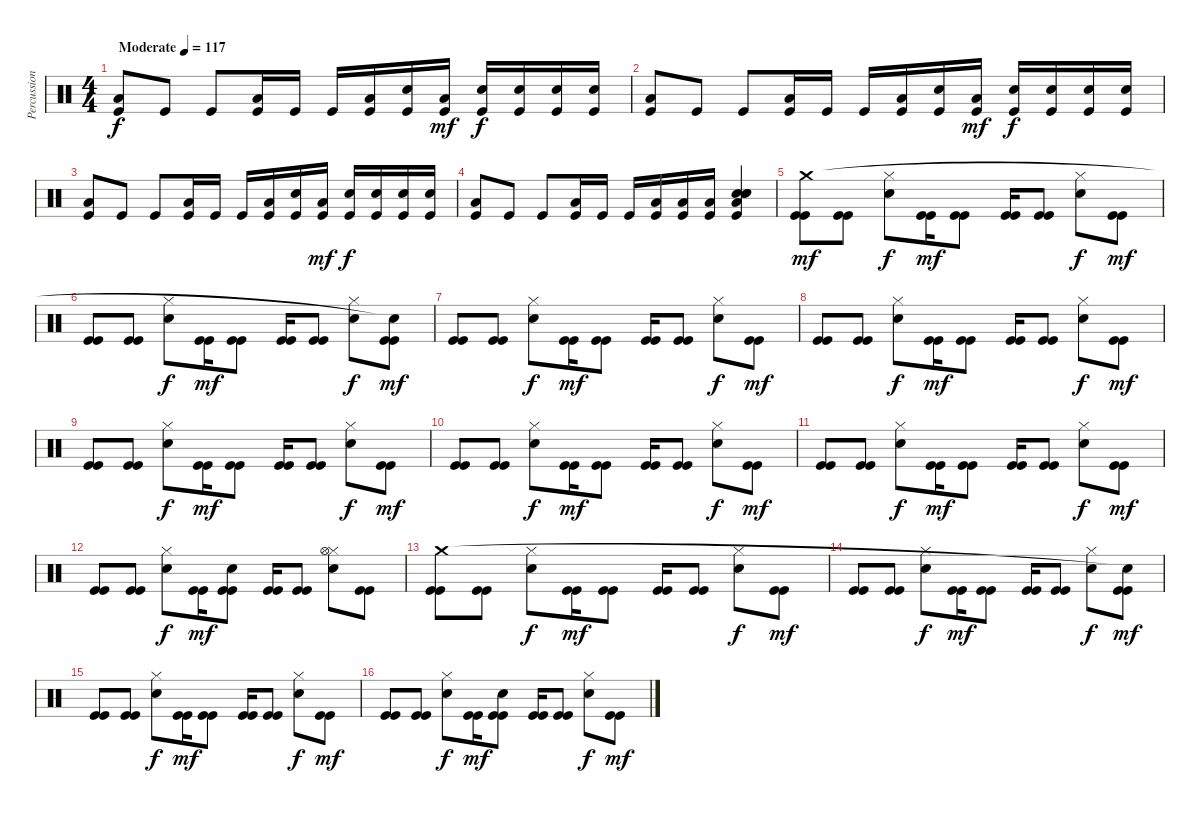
\track ("Percussion" "Percussion") {instrument percussion}
\staff {score}
\articulation defaults
\ts (4 4)
\tempo (117 "Moderate")
\clef neutral
\ks c
("Kick (hit)" "Low Floor Tom (hit)").8{dy f} "Kick (hit)".8 "Kick (hit)".8 ("Kick (hit)" "Low Floor Tom (hit)").16 "Kick (hit)".16 "Kick (hit)".16 ("Kick (hit)" "Low Floor Tom (hit)").16 ("Kick (hit)" "Electric Snare (hit)").16 ("Kick (hit)" "Low Floor Tom (hit)").16{dy mf} ("Kick (hit)" "Electric Snare (hit)").16{dy f} ("Kick (hit)" "Electric Snare (hit)").16 ("Kick (hit)" "Electric Snare (hit)").16 ("Kick (hit)" "Electric Snare (hit)").16 |
("Kick (hit)" "Low Floor Tom (hit)").8 "Kick (hit)".8 "Kick (hit)".8 ("Kick (hit)" "Low Floor Tom (hit)").16 "Kick (hit)".16 "Kick (hit)".16 ("Kick (hit)" "Low Floor Tom (hit)").16 ("Kick (hit)" "Electric Snare (hit)").16 ("Kick (hit)" "Low Floor Tom (hit)").16{dy mf} ("Kick (hit)" "Electric Snare (hit)").16{dy f} ("Kick (hit)" "Electric Snare (hit)").16 ("Kick (hit)" "Electric Snare (hit)").16 ("Kick (hit)" "Electric Snare (hit)").16 |
("Kick (hit)" "Low Floor Tom (hit)").8 "Kick (hit)".8 "Kick (hit)".8 ("Kick (hit)" "Low Floor Tom (hit)").16 "Kick (hit)".16 "Kick (hit)".16 ("Kick (hit)" "Low Floor Tom (hit)").16 ("Kick (hit)" "Electric Snare (hit)").16 ("Kick (hit)" "Low Floor Tom (hit)").16{dy mf} ("Kick (hit)" "Electric Snare (hit)").16{dy f} ("Kick (hit)" "Electric Snare (hit)").16 ("Kick (hit)" "Electric Snare (hit)").16 ("Kick (hit)" "Electric Snare (hit)").16 |
("Kick (hit)" "Low Floor Tom (hit)").8 "Kick (hit)".8 "Kick (hit)".8 ("Kick (hit)" "Low Floor Tom (hit)").16 "Kick (hit)".16 "Kick (hit)".16 ("Kick (hit)" "Low Floor Tom (hit)").16 ("Kick (hit)" "Low Floor Tom (hit)").16 ("Kick (hit)" "Low Floor Tom (hit)").16 ("Kick (hit)" "Snare (hit) 2" "Low Floor Tom (hit)" "Hand Clap (hit)" "Snare (hit) 2").4 |
("Kick (hit)" "Kick (hit)" "Crash medium (hit)").8{dy mf} ("Kick (hit)" "Kick (hit)").8 ("Electric Snare (hit)" "Hi-Hat (closed)").8{dy f} ("Kick (hit)" "Kick (hit)").16{dy mf} ("Kick (hit)" "Kick (hit)").8 ("Kick (hit)" "Kick (hit)").16 ("Kick (hit)" "Kick (hit)").8 ("Electric Snare (hit)" "Hi-Hat (closed)").8{dy f} ("Kick (hit)" "Kick (hit)").8{dy mf} |
("Kick (hit)" "Kick (hit)").8 ("Kick (hit)" "Kick (hit)").8 ("Electric Snare (hit)" "Hi-Hat (closed)").8{dy f} ("Kick (hit)" "Kick (hit)").16{dy mf} ("Kick (hit)" "Kick (hit)").8 ("Kick (hit)" "Kick (hit)").16 ("Kick (hit)" "Kick (hit)").8 ("Electric Snare (hit)" "Hi-Hat (closed)").8{dy f} ("Kick (hit)" "Kick (hit)" "Snare (hit)"{t}).8{dy mf} |
("Kick (hit)" "Kick (hit)").8 ("Kick (hit)" "Kick (hit)").8 ("Electric Snare (hit)" "Hi-Hat (closed)").8{dy f} ("Kick (hit)" "Kick (hit)").16{dy mf} ("Kick (hit)" "Kick (hit)").8 ("Kick (hit)" "Kick (hit)").16 ("Kick (hit)" "Kick (hit)").8 ("Electric Snare (hit)" "Hi-Hat (closed)").8{dy f} ("Kick (hit)" "Kick (hit)").8{dy mf} |
("Kick (hit)" "Kick (hit)").8 ("Kick (hit)" "Kick (hit)").8 ("Electric Snare (hit)" "Hi-Hat (closed)").8{dy f} ("Kick (hit)" "Kick (hit)").16{dy mf} ("Kick (hit)" "Kick (hit)").8 ("Kick (hit)" "Kick (hit)").16 ("Kick (hit)" "Kick (hit)").8 ("Electric Snare (hit)" "Hi-Hat (closed)").8{dy f} ("Kick (hit)" "Kick (hit)").8{dy mf} |
("Kick (hit)" "Kick (hit)").8 ("Kick (hit)" "Kick (hit)").8 ("Electric Snare (hit)" "Hi-Hat (closed)").8{dy f} ("Kick (hit)" "Kick (hit)").16{dy mf} ("Kick (hit)" "Kick (hit)").8 ("Kick (hit)" "Kick (hit)").16 ("Kick (hit)" "Kick (hit)").8 ("Electric Snare (hit)" "Hi-Hat (closed)").8{dy f} ("Kick (hit)" "Kick (hit)").8{dy mf} |
("Kick (hit)" "Kick (hit)").8 ("Kick (hit)" "Kick (hit)").8 ("Electric Snare (hit)" "Hi-Hat (closed)").8{dy f} ("Kick (hit)" "Kick (hit)").16{dy mf} ("Kick (hit)" "Kick (hit)").8 ("Kick (hit)" "Kick (hit)").16 ("Kick (hit)" "Kick (hit)").8 ("Electric Snare (hit)" "Hi-Hat (closed)").8{dy f} ("Kick (hit)" "Kick (hit)").8{dy mf} |
("Kick (hit)" "Kick (hit)").8 ("Kick (hit)" "Kick (hit)").8 ("Electric Snare (hit)" "Hi-Hat (closed)").8{dy f} ("Kick (hit)" "Kick (hit)").16{dy mf} ("Kick (hit)" "Kick (hit)").8 ("Kick (hit)" "Kick (hit)").16 ("Kick (hit)" "Kick (hit)").8 ("Electric Snare (hit)" "Hi-Hat (closed)").8{dy f} ("Kick (hit)" "Kick (hit)").8{dy mf} |
("Kick (hit)" "Kick (hit)").8 ("Kick (hit)" "Kick (hit)").8 ("Electric Snare (hit)" "Hi-Hat (closed)").8{dy f} ("Kick (hit)" "Kick (hit)").16{dy mf} ("Kick (hit)" "Kick (hit)" "Electric Snare (hit)").8 ("Kick (hit)" "Kick (hit)").16 ("Kick (hit)" "Kick (hit)").8 ("Electric Snare (hit)" "Hi-Hat (closed)" "Hi-Hat (open)").8 ("Kick (hit)" "Kick (hit)").8 |
("Kick (hit)" "Kick (hit)" "Crash medium (hit)").8 ("Kick (hit)" "Kick (hit)").8 ("Electric Snare (hit)" "Hi-Hat (closed)").8{dy f} ("Kick (hit)" "Kick (hit)").16{dy mf} ("Kick (hit)" "Kick (hit)").8 ("Kick (hit)" "Kick (hit)").16 ("Kick (hit)" "Kick (hit)").8 ("Electric Snare (hit)" "Hi-Hat (closed)").8{dy f} ("Kick (hit)" "Kick (hit)").8{dy mf} |
("Kick (hit)" "Kick (hit)").8 ("Kick (hit)" "Kick (hit)").8 ("Electric Snare (hit)" "Hi-Hat (closed)").8{dy f} ("Kick (hit)" "Kick (hit)").16{dy mf} ("Kick (hit)" "Kick (hit)").8 ("Kick (hit)" "Kick (hit)").16 ("Kick (hit)" "Kick (hit)").8 ("Electric Snare (hit)" "Hi-Hat (closed)").8{dy f} ("Kick (hit)" "Kick (hit)" "Snare (hit)"{t}).8{dy mf} |
("Kick (hit)" "Kick (hit)").8 ("Kick (hit)" "Kick (hit)").8 ("Electric Snare (hit)" "Hi-Hat (closed)").8{dy f} ("Kick (hit)" "Kick (hit)").16{dy mf} ("Kick (hit)" "Kick (hit)").8 ("Kick (hit)" "Kick (hit)").16 ("Kick (hit)" "Kick (hit)").8 ("Electric Snare (hit)" "Hi-Hat (closed)").8{dy f} ("Kick (hit)" "Kick (hit)").8{dy mf} |
("Kick (hit)" "Kick (hit)").8 ("Kick (hit)" "Kick (hit)").8 ("Electric Snare (hit)" "Hi-Hat (closed)").8{dy f} ("Kick (hit)" "Kick (hit)").16{dy mf} ("Kick (hit)" "Kick (hit)" "Electric Snare (hit)").8 ("Kick (hit)" "Kick (hit)").16 ("Kick (hit)" "Kick (hit)").8 ("Electric Snare (hit)" "Hi-Hat (closed)").8{dy f} ("Kick (hit)" "Kick (hit)").8{dy mf}
